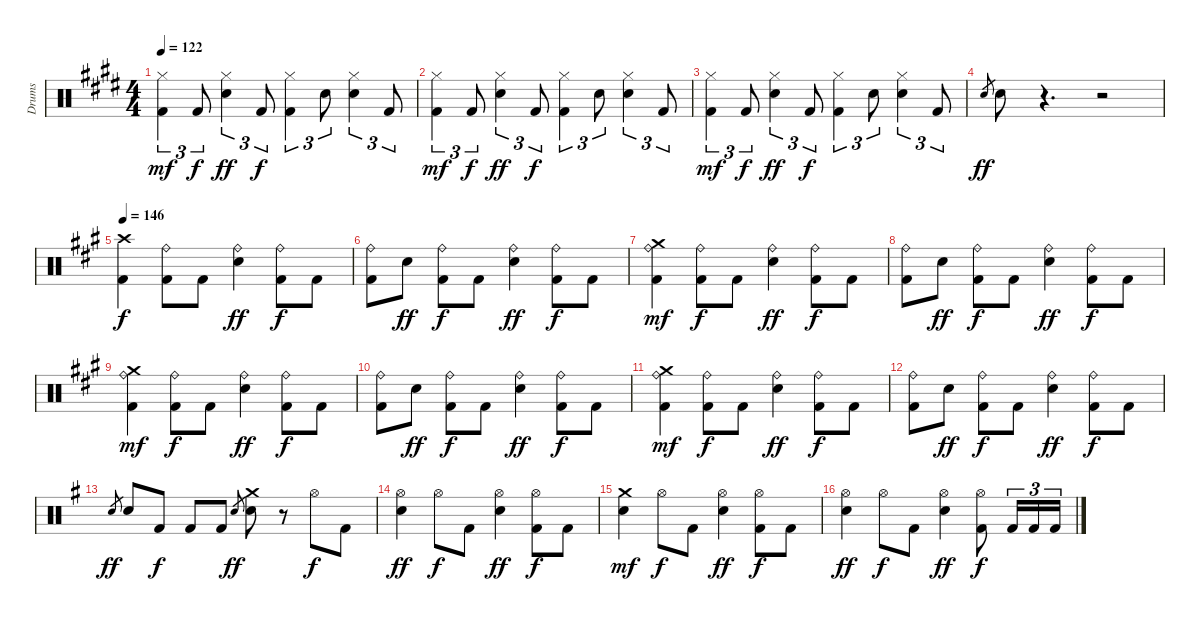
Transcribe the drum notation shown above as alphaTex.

\track ("Drums" "Drums") {instrument percussion}
\staff {score}
\articulation defaults
\ts (4 4)
\tempo 122
\clef neutral
\ks e
("Kick (hit) 2" "Hi-Hat (closed)").4{tu (3 2) dy mf} "Kick (hit) 2".8{tu (3 2) dy f} ("Electric Snare (hit)" "Hi-Hat (closed)").4{tu (3 2) dy ff} "Kick (hit) 2".8{tu (3 2) dy f} ("Kick (hit) 2" "Hi-Hat (closed)").4{tu (3 2)} "Snare (hit) 2".8{tu (3 2)} ("Electric Snare (hit)" "Hi-Hat (closed)").4{tu (3 2)} "Kick (hit) 2".8{tu (3 2)} |
("Kick (hit) 2" "Hi-Hat (closed)").4{tu (3 2) dy mf} "Kick (hit) 2".8{tu (3 2) dy f} ("Electric Snare (hit)" "Hi-Hat (closed)").4{tu (3 2) dy ff} "Kick (hit) 2".8{tu (3 2) dy f} ("Kick (hit) 2" "Hi-Hat (closed)").4{tu (3 2)} "Snare (hit) 2".8{tu (3 2)} ("Electric Snare (hit)" "Hi-Hat (closed)").4{tu (3 2)} "Kick (hit) 2".8{tu (3 2)} |
("Kick (hit) 2" "Hi-Hat (closed)").4{tu (3 2) dy mf} "Kick (hit) 2".8{tu (3 2) dy f} ("Electric Snare (hit)" "Hi-Hat (closed)").4{tu (3 2) dy ff} "Kick (hit) 2".8{tu (3 2) dy f} ("Kick (hit) 2" "Hi-Hat (closed)").4{tu (3 2)} "Snare (hit) 2".8{tu (3 2)} ("Electric Snare (hit)" "Hi-Hat (closed)").4{tu (3 2)} "Kick (hit) 2".8{tu (3 2)} |
"Electric Snare (hit)".8{gr dy ff} "Electric Snare (hit)".8 r.4{d} r.2 |
\tempo 146
\ks a
("Kick (hit) 2" "Crash high (hit)").4{dy f} ("Kick (hit) 2" "Ride (bell)").8 "Kick (hit) 2".8 ("Electric Snare (hit)" "Ride (bell)").4{dy ff} ("Kick (hit) 2" "Ride (bell)").8{dy f} "Kick (hit) 2".8 |
("Kick (hit) 2" "Ride (bell)").8 "Electric Snare (hit)".8{dy ff} ("Kick (hit) 2" "Ride (bell)").8{dy f} "Kick (hit) 2".8 ("Electric Snare (hit)" "Ride (bell)").4{dy ff} ("Kick (hit) 2" "Ride (bell)").8{dy f} "Kick (hit) 2".8 |
("Kick (hit) 2" "Ride (bell)" "Crash medium (hit)").4{dy mf} ("Kick (hit) 2" "Ride (bell)").8{dy f} "Kick (hit) 2".8 ("Electric Snare (hit)" "Ride (bell)").4{dy ff} ("Kick (hit) 2" "Ride (bell)").8{dy f} "Kick (hit) 2".8 |
("Kick (hit) 2" "Ride (bell)").8 "Electric Snare (hit)".8{dy ff} ("Kick (hit) 2" "Ride (bell)").8{dy f} "Kick (hit) 2".8 ("Electric Snare (hit)" "Ride (bell)").4{dy ff} ("Kick (hit) 2" "Ride (bell)").8{dy f} "Kick (hit) 2".8 |
("Kick (hit) 2" "Ride (bell)" "Crash medium (hit)").4{dy mf} ("Kick (hit) 2" "Ride (bell)").8{dy f} "Kick (hit) 2".8 ("Electric Snare (hit)" "Ride (bell)").4{dy ff} ("Kick (hit) 2" "Ride (bell)").8{dy f} "Kick (hit) 2".8 |
("Kick (hit) 2" "Ride (bell)").8 "Electric Snare (hit)".8{dy ff} ("Kick (hit) 2" "Ride (bell)").8{dy f} "Kick (hit) 2".8 ("Electric Snare (hit)" "Ride (bell)").4{dy ff} ("Kick (hit) 2" "Ride (bell)").8{dy f} "Kick (hit) 2".8 |
("Kick (hit) 2" "Ride (bell)" "Crash medium (hit)").4{dy mf} ("Kick (hit) 2" "Ride (bell)").8{dy f} "Kick (hit) 2".8 ("Electric Snare (hit)" "Ride (bell)").4{dy ff} ("Kick (hit) 2" "Ride (bell)").8{dy f} "Kick (hit) 2".8 |
("Kick (hit) 2" "Ride (bell)").8 "Electric Snare (hit)".8{dy ff} ("Kick (hit) 2" "Ride (bell)").8{dy f} "Kick (hit) 2".8 ("Electric Snare (hit)" "Ride (bell)").4{dy ff} ("Kick (hit) 2" "Ride (bell)").8{dy f} "Kick (hit) 2".8 |
\ks g "Electric Snare (hit)".8{gr dy ff} "Electric Snare (hit)".8 "Kick (hit) 2".8{dy f} "Kick (hit) 2".8 "Kick (hit) 2".8 "Electric Snare (hit)".8{gr dy ff}
("Electric Snare (hit)" "Crash medium (hit)").8 r.8 "Hi-Hat (open)".8{dy f} "Kick (hit) 2".8 |
("Electric Snare (hit)" "Hi-Hat (open)").4{dy ff} "Hi-Hat (open)".8{dy f} "Kick (hit) 2".8 ("Electric Snare (hit)" "Hi-Hat (open)").4{dy ff} ("Kick (hit) 2" "Hi-Hat (open)").8{dy f} "Kick (hit) 2".8 |
("Electric Snare (hit)" "Crash medium (hit)").4{dy mf} "Hi-Hat (open)".8{dy f} "Kick (hit) 2".8 ("Electric Snare (hit)" "Hi-Hat (open)").4{dy ff} ("Kick (hit) 2" "Hi-Hat (open)").8{dy f} "Kick (hit) 2".8 |
("Electric Snare (hit)" "Hi-Hat (open)").4{dy ff} "Hi-Hat (open)".8{dy f} "Kick (hit) 2".8 ("Electric Snare (hit)" "Hi-Hat (open)").4{dy ff} ("Kick (hit) 2" "Hi-Hat (open)").8{dy f} "Kick (hit) 2".16{tu (3 2)} "Kick (hit) 2".16{tu (3 2)} "Kick (hit) 2".16{tu (3 2)}
